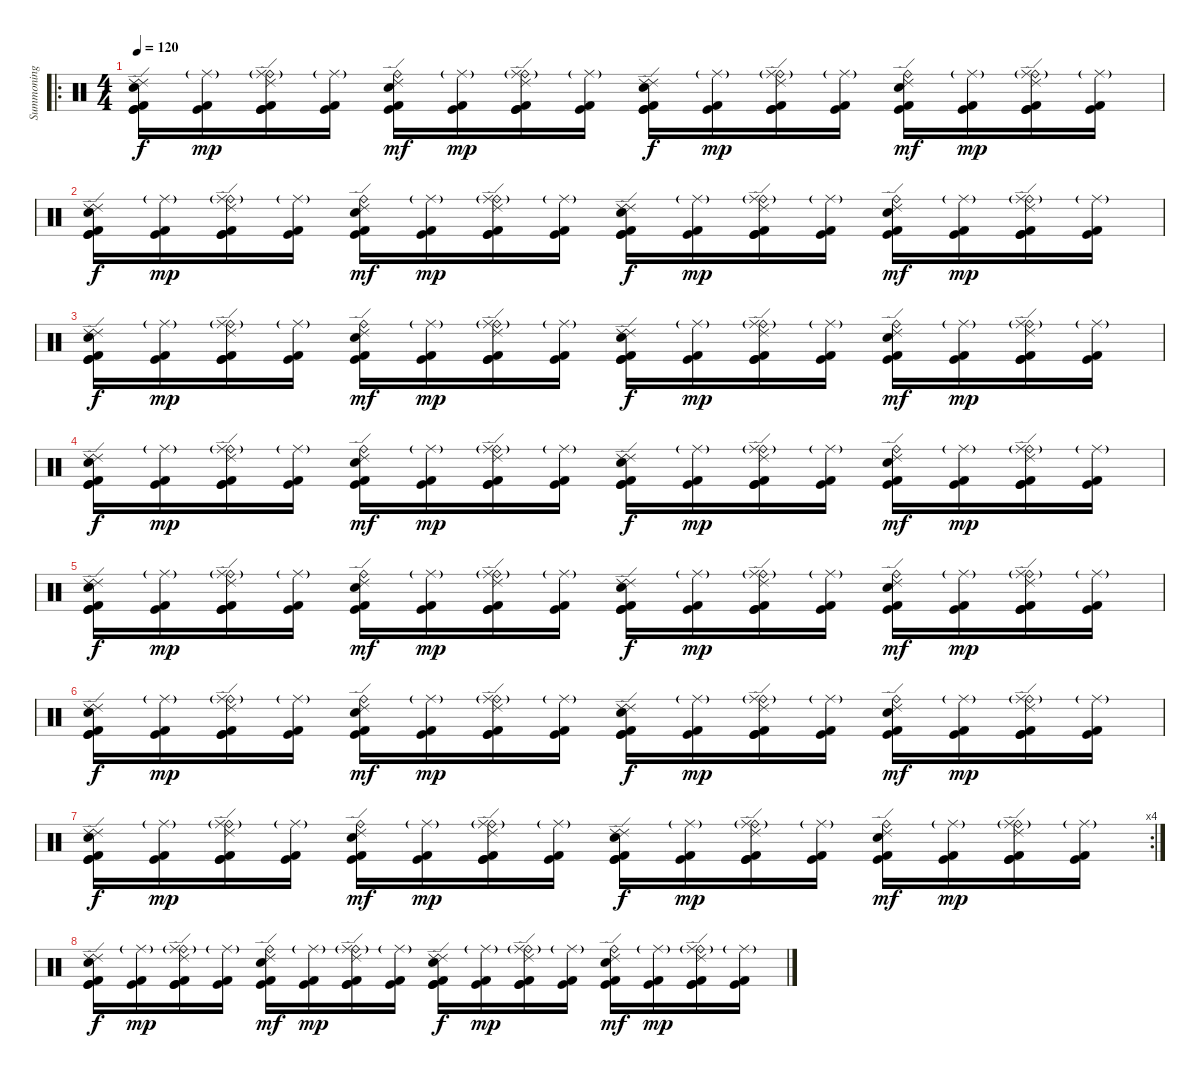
\track ("Summoning" "Summoning") {instrument percussion}
\staff {score}
\articulation defaults
\ro
\ts (4 4)
\tempo 120
\clef neutral
\ks c
("Ride (edge) 2" "Kick (hit)" "Kick (hit)" "Ride (edge) 2" "Electric Snare (hit)" "Kick (hit) 2").16{dy f volume 15} ("Ride (middle)"{g} "Kick (hit)" "Kick (hit) 2").16{dy mp} ("Ride (edge) 2" "Kick (hit)" "Ride (bell)" "Ride (middle)"{g} "Kick (hit)" "Kick (hit) 2").16 ("Ride (middle)"{g} "Kick (hit)" "Kick (hit) 2").16 ("Ride (edge) 2" "Kick (hit)" "Ride (bell)" "Electric Snare (hit)" "Kick (hit) 2").16{dy mf} ("Ride (middle)"{g} "Kick (hit)" "Kick (hit) 2").16{dy mp} ("Ride (edge) 2" "Kick (hit)" "Ride (bell)" "Ride (middle)"{g} "Kick (hit)" "Kick (hit) 2").16 ("Ride (middle)"{g} "Kick (hit)" "Kick (hit) 2").16 ("Ride (edge) 2" "Kick (hit)" "Kick (hit)" "Ride (edge) 2" "Electric Snare (hit)" "Kick (hit) 2").16{dy f} ("Ride (middle)"{g} "Kick (hit)" "Kick (hit) 2").16{dy mp} ("Ride (edge) 2" "Kick (hit)" "Ride (bell)" "Ride (middle)"{g} "Kick (hit)" "Kick (hit) 2").16 ("Ride (middle)"{g} "Kick (hit)" "Kick (hit) 2").16 ("Ride (edge) 2" "Kick (hit)" "Ride (bell)" "Electric Snare (hit)" "Kick (hit) 2").16{dy mf} ("Ride (middle)"{g} "Kick (hit)" "Kick (hit) 2").16{dy mp} ("Ride (edge) 2" "Kick (hit)" "Ride (bell)" "Ride (middle)"{g} "Kick (hit)" "Kick (hit) 2").16 ("Ride (middle)"{g} "Kick (hit)" "Kick (hit) 2").16 |
("Ride (edge) 2" "Kick (hit)" "Kick (hit)" "Ride (edge) 2" "Electric Snare (hit)" "Kick (hit) 2").16{dy f} ("Ride (middle)"{g} "Kick (hit)" "Kick (hit) 2").16{dy mp} ("Ride (edge) 2" "Kick (hit)" "Ride (bell)" "Ride (middle)"{g} "Kick (hit)" "Kick (hit) 2").16 ("Ride (middle)"{g} "Kick (hit)" "Kick (hit) 2").16 ("Ride (edge) 2" "Kick (hit)" "Ride (bell)" "Electric Snare (hit)" "Kick (hit) 2").16{dy mf} ("Ride (middle)"{g} "Kick (hit)" "Kick (hit) 2").16{dy mp} ("Ride (edge) 2" "Kick (hit)" "Ride (bell)" "Ride (middle)"{g} "Kick (hit)" "Kick (hit) 2").16 ("Ride (middle)"{g} "Kick (hit)" "Kick (hit) 2").16 ("Ride (edge) 2" "Kick (hit)" "Kick (hit)" "Ride (edge) 2" "Electric Snare (hit)" "Kick (hit) 2").16{dy f} ("Ride (middle)"{g} "Kick (hit)" "Kick (hit) 2").16{dy mp} ("Ride (edge) 2" "Kick (hit)" "Ride (bell)" "Ride (middle)"{g} "Kick (hit)" "Kick (hit) 2").16 ("Ride (middle)"{g} "Kick (hit)" "Kick (hit) 2").16 ("Ride (edge) 2" "Kick (hit)" "Ride (bell)" "Electric Snare (hit)" "Kick (hit) 2").16{dy mf} ("Ride (middle)"{g} "Kick (hit)" "Kick (hit) 2").16{dy mp} ("Ride (edge) 2" "Kick (hit)" "Ride (bell)" "Ride (middle)"{g} "Kick (hit)" "Kick (hit) 2").16 ("Ride (middle)"{g} "Kick (hit)" "Kick (hit) 2").16 |
("Ride (edge) 2" "Kick (hit)" "Kick (hit)" "Ride (edge) 2" "Electric Snare (hit)" "Kick (hit) 2").16{dy f} ("Ride (middle)"{g} "Kick (hit)" "Kick (hit) 2").16{dy mp} ("Ride (edge) 2" "Kick (hit)" "Ride (bell)" "Ride (middle)"{g} "Kick (hit)" "Kick (hit) 2").16 ("Ride (middle)"{g} "Kick (hit)" "Kick (hit) 2").16 ("Ride (edge) 2" "Kick (hit)" "Ride (bell)" "Electric Snare (hit)" "Kick (hit) 2").16{dy mf} ("Ride (middle)"{g} "Kick (hit)" "Kick (hit) 2").16{dy mp} ("Ride (edge) 2" "Kick (hit)" "Ride (bell)" "Ride (middle)"{g} "Kick (hit)" "Kick (hit) 2").16 ("Ride (middle)"{g} "Kick (hit)" "Kick (hit) 2").16 ("Ride (edge) 2" "Kick (hit)" "Kick (hit)" "Ride (edge) 2" "Electric Snare (hit)" "Kick (hit) 2").16{dy f} ("Ride (middle)"{g} "Kick (hit)" "Kick (hit) 2").16{dy mp} ("Ride (edge) 2" "Kick (hit)" "Ride (bell)" "Ride (middle)"{g} "Kick (hit)" "Kick (hit) 2").16 ("Ride (middle)"{g} "Kick (hit)" "Kick (hit) 2").16 ("Ride (edge) 2" "Kick (hit)" "Ride (bell)" "Electric Snare (hit)" "Kick (hit) 2").16{dy mf} ("Ride (middle)"{g} "Kick (hit)" "Kick (hit) 2").16{dy mp} ("Ride (edge) 2" "Kick (hit)" "Ride (bell)" "Ride (middle)"{g} "Kick (hit)" "Kick (hit) 2").16 ("Ride (middle)"{g} "Kick (hit)" "Kick (hit) 2").16 |
("Ride (edge) 2" "Kick (hit)" "Kick (hit)" "Ride (edge) 2" "Electric Snare (hit)" "Kick (hit) 2").16{dy f} ("Ride (middle)"{g} "Kick (hit)" "Kick (hit) 2").16{dy mp} ("Ride (edge) 2" "Kick (hit)" "Ride (bell)" "Ride (middle)"{g} "Kick (hit)" "Kick (hit) 2").16 ("Ride (middle)"{g} "Kick (hit)" "Kick (hit) 2").16 ("Ride (edge) 2" "Kick (hit)" "Ride (bell)" "Electric Snare (hit)" "Kick (hit) 2").16{dy mf} ("Ride (middle)"{g} "Kick (hit)" "Kick (hit) 2").16{dy mp} ("Ride (edge) 2" "Kick (hit)" "Ride (bell)" "Ride (middle)"{g} "Kick (hit)" "Kick (hit) 2").16 ("Ride (middle)"{g} "Kick (hit)" "Kick (hit) 2").16 ("Ride (edge) 2" "Kick (hit)" "Kick (hit)" "Ride (edge) 2" "Electric Snare (hit)" "Kick (hit) 2").16{dy f} ("Ride (middle)"{g} "Kick (hit)" "Kick (hit) 2").16{dy mp} ("Ride (edge) 2" "Kick (hit)" "Ride (bell)" "Ride (middle)"{g} "Kick (hit)" "Kick (hit) 2").16 ("Ride (middle)"{g} "Kick (hit)" "Kick (hit) 2").16 ("Ride (edge) 2" "Kick (hit)" "Ride (bell)" "Electric Snare (hit)" "Kick (hit) 2").16{dy mf} ("Ride (middle)"{g} "Kick (hit)" "Kick (hit) 2").16{dy mp} ("Ride (edge) 2" "Kick (hit)" "Ride (bell)" "Ride (middle)"{g} "Kick (hit)" "Kick (hit) 2").16 ("Ride (middle)"{g} "Kick (hit)" "Kick (hit) 2").16 |
("Ride (edge) 2" "Kick (hit)" "Kick (hit)" "Ride (edge) 2" "Electric Snare (hit)" "Kick (hit) 2").16{dy f} ("Ride (middle)"{g} "Kick (hit)" "Kick (hit) 2").16{dy mp} ("Ride (edge) 2" "Kick (hit)" "Ride (bell)" "Ride (middle)"{g} "Kick (hit)" "Kick (hit) 2").16 ("Ride (middle)"{g} "Kick (hit)" "Kick (hit) 2").16 ("Ride (edge) 2" "Kick (hit)" "Ride (bell)" "Electric Snare (hit)" "Kick (hit) 2").16{dy mf} ("Ride (middle)"{g} "Kick (hit)" "Kick (hit) 2").16{dy mp} ("Ride (edge) 2" "Kick (hit)" "Ride (bell)" "Ride (middle)"{g} "Kick (hit)" "Kick (hit) 2").16 ("Ride (middle)"{g} "Kick (hit)" "Kick (hit) 2").16 ("Ride (edge) 2" "Kick (hit)" "Kick (hit)" "Ride (edge) 2" "Electric Snare (hit)" "Kick (hit) 2").16{dy f} ("Ride (middle)"{g} "Kick (hit)" "Kick (hit) 2").16{dy mp} ("Ride (edge) 2" "Kick (hit)" "Ride (bell)" "Ride (middle)"{g} "Kick (hit)" "Kick (hit) 2").16 ("Ride (middle)"{g} "Kick (hit)" "Kick (hit) 2").16 ("Ride (edge) 2" "Kick (hit)" "Ride (bell)" "Electric Snare (hit)" "Kick (hit) 2").16{dy mf} ("Ride (middle)"{g} "Kick (hit)" "Kick (hit) 2").16{dy mp} ("Ride (edge) 2" "Kick (hit)" "Ride (bell)" "Ride (middle)"{g} "Kick (hit)" "Kick (hit) 2").16 ("Ride (middle)"{g} "Kick (hit)" "Kick (hit) 2").16 |
("Ride (edge) 2" "Kick (hit)" "Kick (hit)" "Ride (edge) 2" "Electric Snare (hit)" "Kick (hit) 2").16{dy f} ("Ride (middle)"{g} "Kick (hit)" "Kick (hit) 2").16{dy mp} ("Ride (edge) 2" "Kick (hit)" "Ride (bell)" "Ride (middle)"{g} "Kick (hit)" "Kick (hit) 2").16 ("Ride (middle)"{g} "Kick (hit)" "Kick (hit) 2").16 ("Ride (edge) 2" "Kick (hit)" "Ride (bell)" "Electric Snare (hit)" "Kick (hit) 2").16{dy mf} ("Ride (middle)"{g} "Kick (hit)" "Kick (hit) 2").16{dy mp} ("Ride (edge) 2" "Kick (hit)" "Ride (bell)" "Ride (middle)"{g} "Kick (hit)" "Kick (hit) 2").16 ("Ride (middle)"{g} "Kick (hit)" "Kick (hit) 2").16 ("Ride (edge) 2" "Kick (hit)" "Kick (hit)" "Ride (edge) 2" "Electric Snare (hit)" "Kick (hit) 2").16{dy f} ("Ride (middle)"{g} "Kick (hit)" "Kick (hit) 2").16{dy mp} ("Ride (edge) 2" "Kick (hit)" "Ride (bell)" "Ride (middle)"{g} "Kick (hit)" "Kick (hit) 2").16 ("Ride (middle)"{g} "Kick (hit)" "Kick (hit) 2").16 ("Ride (edge) 2" "Kick (hit)" "Ride (bell)" "Electric Snare (hit)" "Kick (hit) 2").16{dy mf} ("Ride (middle)"{g} "Kick (hit)" "Kick (hit) 2").16{dy mp} ("Ride (edge) 2" "Kick (hit)" "Ride (bell)" "Ride (middle)"{g} "Kick (hit)" "Kick (hit) 2").16 ("Ride (middle)"{g} "Kick (hit)" "Kick (hit) 2").16 |
\rc 4
("Ride (edge) 2" "Kick (hit)" "Kick (hit)" "Ride (edge) 2" "Electric Snare (hit)" "Kick (hit) 2").16{dy f} ("Ride (middle)"{g} "Kick (hit)" "Kick (hit) 2").16{dy mp} ("Ride (edge) 2" "Kick (hit)" "Ride (bell)" "Ride (middle)"{g} "Kick (hit)" "Kick (hit) 2").16 ("Ride (middle)"{g} "Kick (hit)" "Kick (hit) 2").16 ("Ride (edge) 2" "Kick (hit)" "Ride (bell)" "Electric Snare (hit)" "Kick (hit) 2").16{dy mf} ("Ride (middle)"{g} "Kick (hit)" "Kick (hit) 2").16{dy mp} ("Ride (edge) 2" "Kick (hit)" "Ride (bell)" "Ride (middle)"{g} "Kick (hit)" "Kick (hit) 2").16 ("Ride (middle)"{g} "Kick (hit)" "Kick (hit) 2").16 ("Ride (edge) 2" "Kick (hit)" "Kick (hit)" "Ride (edge) 2" "Electric Snare (hit)" "Kick (hit) 2").16{dy f} ("Ride (middle)"{g} "Kick (hit)" "Kick (hit) 2").16{dy mp} ("Ride (edge) 2" "Kick (hit)" "Ride (bell)" "Ride (middle)"{g} "Kick (hit)" "Kick (hit) 2").16 ("Ride (middle)"{g} "Kick (hit)" "Kick (hit) 2").16 ("Ride (edge) 2" "Kick (hit)" "Ride (bell)" "Electric Snare (hit)" "Kick (hit) 2").16{dy mf} ("Ride (middle)"{g} "Kick (hit)" "Kick (hit) 2").16{dy mp} ("Ride (edge) 2" "Kick (hit)" "Ride (bell)" "Ride (middle)"{g} "Kick (hit)" "Kick (hit) 2").16 ("Ride (middle)"{g} "Kick (hit)" "Kick (hit) 2").16 |
("Ride (edge) 2" "Kick (hit)" "Kick (hit)" "Ride (edge) 2" "Electric Snare (hit)" "Kick (hit) 2").16{dy f} ("Ride (middle)"{g} "Kick (hit)" "Kick (hit) 2").16{dy mp} ("Ride (edge) 2" "Kick (hit)" "Ride (bell)" "Ride (middle)"{g} "Kick (hit)" "Kick (hit) 2").16 ("Ride (middle)"{g} "Kick (hit)" "Kick (hit) 2").16 ("Ride (edge) 2" "Kick (hit)" "Ride (bell)" "Electric Snare (hit)" "Kick (hit) 2").16{dy mf} ("Ride (middle)"{g} "Kick (hit)" "Kick (hit) 2").16{dy mp} ("Ride (edge) 2" "Kick (hit)" "Ride (bell)" "Ride (middle)"{g} "Kick (hit)" "Kick (hit) 2").16 ("Ride (middle)"{g} "Kick (hit)" "Kick (hit) 2").16 ("Ride (edge) 2" "Kick (hit)" "Kick (hit)" "Ride (edge) 2" "Electric Snare (hit)" "Kick (hit) 2").16{dy f} ("Ride (middle)"{g} "Kick (hit)" "Kick (hit) 2").16{dy mp} ("Ride (edge) 2" "Kick (hit)" "Ride (bell)" "Ride (middle)"{g} "Kick (hit)" "Kick (hit) 2").16 ("Ride (middle)"{g} "Kick (hit)" "Kick (hit) 2").16 ("Ride (edge) 2" "Kick (hit)" "Ride (bell)" "Electric Snare (hit)" "Kick (hit) 2").16{dy mf} ("Ride (middle)"{g} "Kick (hit)" "Kick (hit) 2").16{dy mp} ("Ride (edge) 2" "Kick (hit)" "Ride (bell)" "Ride (middle)"{g} "Kick (hit)" "Kick (hit) 2").16 ("Ride (middle)"{g} "Kick (hit)" "Kick (hit) 2").16
